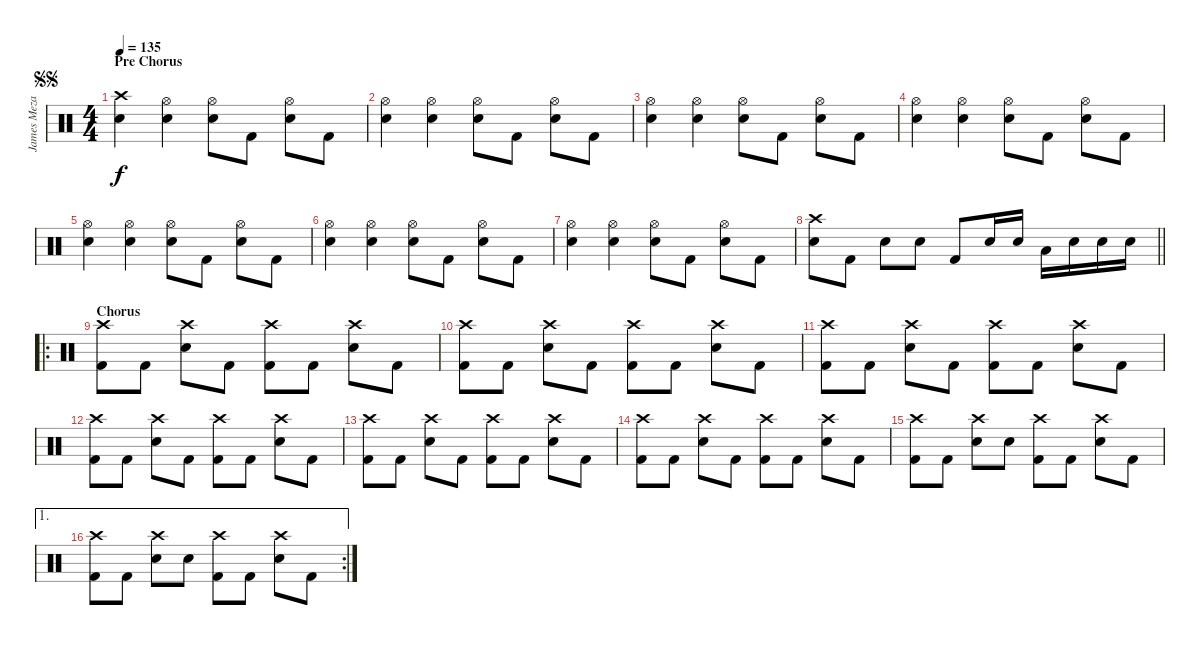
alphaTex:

\track ("James Meza - Drums" "James Meza") {instrument percussion}
\staff {score}
\articulation defaults
\ts (4 4)
\section ("" "Pre Chorus")
\jump segnosegno
\tempo 135
\clef neutral
\ks c
("Crash high (hit)" "Electric Snare (hit)").4{dy f} ("Hi-Hat (open)" "Electric Snare (hit)").4 ("Hi-Hat (open)" "Electric Snare (hit)").8 "Kick (hit) 2".8 ("Hi-Hat (open)" "Electric Snare (hit)").8 "Kick (hit) 2".8 |
("Hi-Hat (open)" "Electric Snare (hit)").4 ("Hi-Hat (open)" "Electric Snare (hit)").4 ("Hi-Hat (open)" "Electric Snare (hit)").8 "Kick (hit) 2".8 ("Hi-Hat (open)" "Electric Snare (hit)").8 "Kick (hit) 2".8 |
("Hi-Hat (open)" "Electric Snare (hit)").4 ("Hi-Hat (open)" "Electric Snare (hit)").4 ("Hi-Hat (open)" "Electric Snare (hit)").8 "Kick (hit) 2".8 ("Hi-Hat (open)" "Electric Snare (hit)").8 "Kick (hit) 2".8 |
("Hi-Hat (open)" "Electric Snare (hit)").4 ("Hi-Hat (open)" "Electric Snare (hit)").4 ("Hi-Hat (open)" "Electric Snare (hit)").8 "Kick (hit) 2".8 ("Hi-Hat (open)" "Electric Snare (hit)").8 "Kick (hit) 2".8 |
("Hi-Hat (open)" "Electric Snare (hit)").4 ("Hi-Hat (open)" "Electric Snare (hit)").4 ("Hi-Hat (open)" "Electric Snare (hit)").8 "Kick (hit) 2".8 ("Hi-Hat (open)" "Electric Snare (hit)").8 "Kick (hit) 2".8 |
("Hi-Hat (open)" "Electric Snare (hit)").4 ("Hi-Hat (open)" "Electric Snare (hit)").4 ("Hi-Hat (open)" "Electric Snare (hit)").8 "Kick (hit) 2".8 ("Hi-Hat (open)" "Electric Snare (hit)").8 "Kick (hit) 2".8 |
("Hi-Hat (open)" "Electric Snare (hit)").4 ("Hi-Hat (open)" "Electric Snare (hit)").4 ("Hi-Hat (open)" "Electric Snare (hit)").8 "Kick (hit) 2".8 ("Hi-Hat (open)" "Electric Snare (hit)").8 "Kick (hit) 2".8 |
\barLineRight lightlight
("Crash high (hit)" "Electric Snare (hit)").8 "Kick (hit) 2".8 "Electric Snare (hit)".8 "Electric Snare (hit)".8 "Kick (hit) 2".8 "Electric Snare (hit)".16 "Electric Snare (hit)".16 "Low Tom (hit)".16 "Electric Snare (hit)".16 "Electric Snare (hit)".16 "Electric Snare (hit)".16 |
\ro
\section ("" "Chorus")
("Crash high (hit)" "Kick (hit) 2").8 "Kick (hit) 2".8 ("Crash high (hit)" "Electric Snare (hit)").8 "Kick (hit) 2".8 ("Crash high (hit)" "Kick (hit) 2").8 "Kick (hit) 2".8 ("Crash high (hit)" "Electric Snare (hit)").8 "Kick (hit) 2".8 |
("Crash high (hit)" "Kick (hit) 2").8 "Kick (hit) 2".8 ("Crash high (hit)" "Electric Snare (hit)").8 "Kick (hit) 2".8 ("Crash high (hit)" "Kick (hit) 2").8 "Kick (hit) 2".8 ("Crash high (hit)" "Electric Snare (hit)").8 "Kick (hit) 2".8 |
("Crash high (hit)" "Kick (hit) 2").8 "Kick (hit) 2".8 ("Crash high (hit)" "Electric Snare (hit)").8 "Kick (hit) 2".8 ("Crash high (hit)" "Kick (hit) 2").8 "Kick (hit) 2".8 ("Crash high (hit)" "Electric Snare (hit)").8 "Kick (hit) 2".8 |
("Crash high (hit)" "Kick (hit) 2").8 "Kick (hit) 2".8 ("Crash high (hit)" "Electric Snare (hit)").8 "Kick (hit) 2".8 ("Crash high (hit)" "Kick (hit) 2").8 "Kick (hit) 2".8 ("Crash high (hit)" "Electric Snare (hit)").8 "Kick (hit) 2".8 |
("Crash high (hit)" "Kick (hit) 2").8 "Kick (hit) 2".8 ("Crash high (hit)" "Electric Snare (hit)").8 "Kick (hit) 2".8 ("Crash high (hit)" "Kick (hit) 2").8 "Kick (hit) 2".8 ("Crash high (hit)" "Electric Snare (hit)").8 "Kick (hit) 2".8 |
("Crash high (hit)" "Kick (hit) 2").8 "Kick (hit) 2".8 ("Crash high (hit)" "Electric Snare (hit)").8 "Kick (hit) 2".8 ("Crash high (hit)" "Kick (hit) 2").8 "Kick (hit) 2".8 ("Crash high (hit)" "Electric Snare (hit)").8 "Kick (hit) 2".8 |
("Crash high (hit)" "Kick (hit) 2").8 "Kick (hit) 2".8 ("Crash high (hit)" "Electric Snare (hit)").8 "Electric Snare (hit)".8 ("Crash high (hit)" "Kick (hit) 2").8 "Kick (hit) 2".8 ("Crash high (hit)" "Electric Snare (hit)").8 "Kick (hit) 2".8 |
\ae 1
\rc 2
("Crash high (hit)" "Kick (hit) 2").8 "Kick (hit) 2".8 ("Crash high (hit)" "Electric Snare (hit)").8 "Electric Snare (hit)".8 ("Crash high (hit)" "Kick (hit) 2").8 "Kick (hit) 2".8 ("Crash high (hit)" "Electric Snare (hit)").8 "Kick (hit) 2".8
